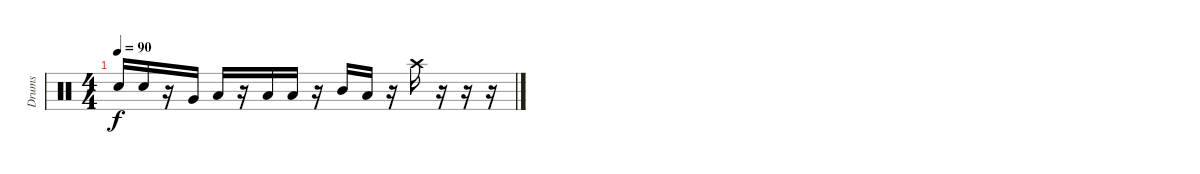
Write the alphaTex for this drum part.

\track ("Drums" "Drums") {instrument percussion}
\staff {score}
\articulation defaults
\ts (4 4)
\tempo 90
\clef neutral
\ks c "Electric Snare (hit)".16{dy f} "Electric Snare (hit)".16
r.16 "Very Low Tom (hit)".16 "Low Floor Tom (hit)".16 r.16 "Low Tom (hit)".16 "Low Floor Tom (hit)".16 r.16 "Mid Tom (hit)".16 "Low Floor Tom (hit)".16 r.16 "Crash high (hit)".16 r.16 r.16 r.16
